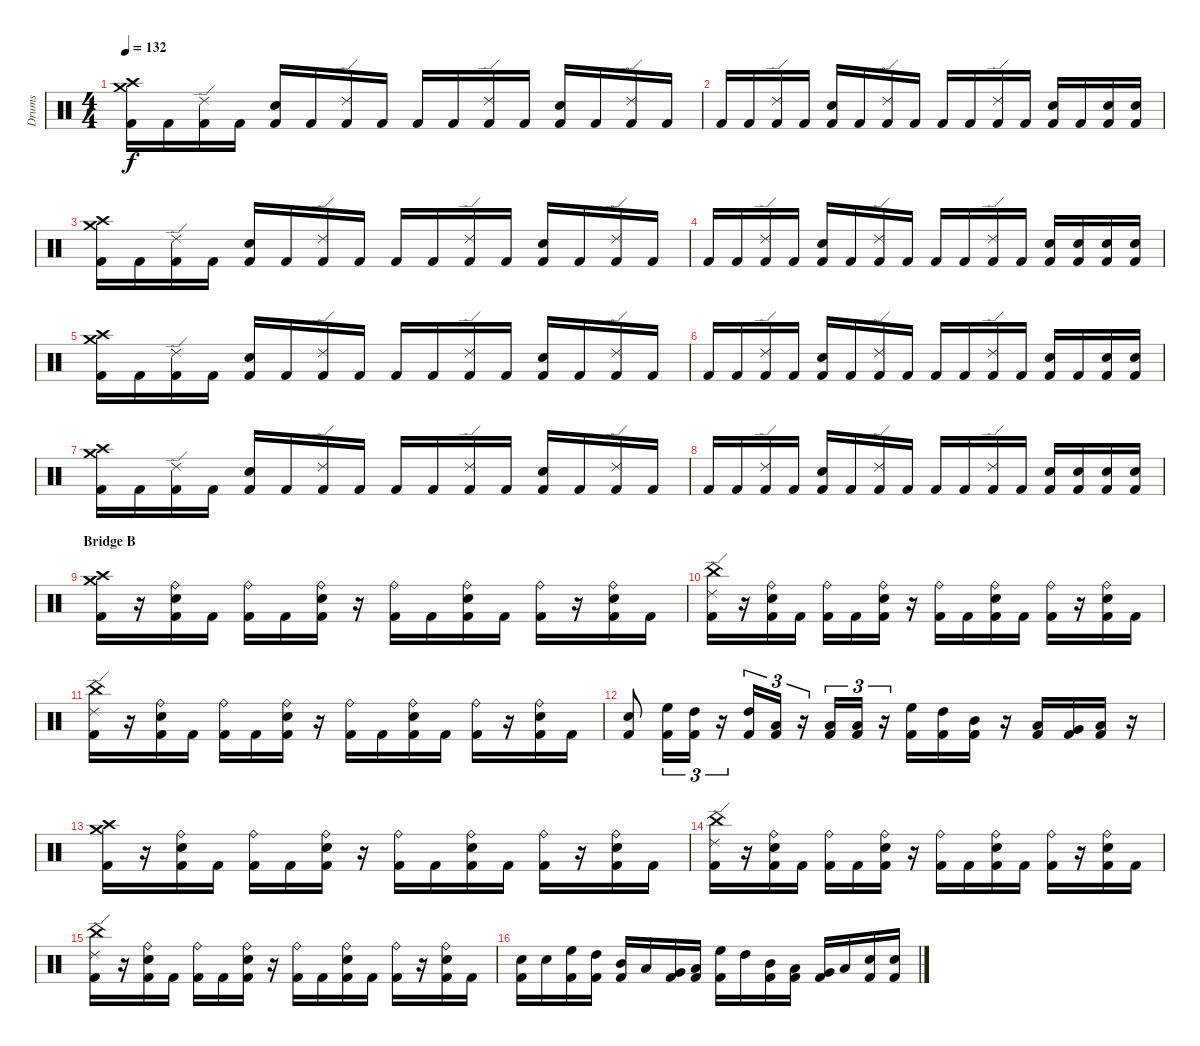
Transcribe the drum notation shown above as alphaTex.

\track ("Drums" "Drums") {instrument percussion}
\staff {score}
\articulation defaults
\ts (4 4)
\tempo 132
\clef neutral
\ks c
("Crash medium (hit)" "Crash high (hit)" "Kick (hit) 2").16{dy f} "Kick (hit) 2".16 ("Ride (edge) 2" "Kick (hit) 2").16 "Kick (hit) 2".16 ("Electric Snare (hit)" "Kick (hit) 2").16 "Kick (hit) 2".16 ("Ride (edge) 2" "Kick (hit) 2").16 "Kick (hit) 2".16 "Kick (hit) 2".16 "Kick (hit) 2".16 ("Ride (edge) 2" "Kick (hit) 2").16 "Kick (hit) 2".16 ("Electric Snare (hit)" "Kick (hit) 2").16 "Kick (hit) 2".16 ("Ride (edge) 2" "Kick (hit) 2").16 "Kick (hit) 2".16 |
"Kick (hit) 2".16 "Kick (hit) 2".16 ("Ride (edge) 2" "Kick (hit) 2").16 "Kick (hit) 2".16 ("Electric Snare (hit)" "Kick (hit) 2").16 "Kick (hit) 2".16 ("Ride (edge) 2" "Kick (hit) 2").16 "Kick (hit) 2".16 "Kick (hit) 2".16 "Kick (hit) 2".16 ("Ride (edge) 2" "Kick (hit) 2").16 "Kick (hit) 2".16 ("Electric Snare (hit)" "Kick (hit) 2").16 "Kick (hit) 2".16 ("Electric Snare (hit)" "Kick (hit) 2").16 ("Electric Snare (hit)" "Kick (hit) 2").16 |
("Crash medium (hit)" "Crash high (hit)" "Kick (hit) 2").16 "Kick (hit) 2".16 ("Ride (edge) 2" "Kick (hit) 2").16 "Kick (hit) 2".16 ("Electric Snare (hit)" "Kick (hit) 2").16 "Kick (hit) 2".16 ("Ride (edge) 2" "Kick (hit) 2").16 "Kick (hit) 2".16 "Kick (hit) 2".16 "Kick (hit) 2".16 ("Ride (edge) 2" "Kick (hit) 2").16 "Kick (hit) 2".16 ("Electric Snare (hit)" "Kick (hit) 2").16 "Kick (hit) 2".16 ("Ride (edge) 2" "Kick (hit) 2").16 "Kick (hit) 2".16 |
"Kick (hit) 2".16 "Kick (hit) 2".16 ("Ride (edge) 2" "Kick (hit) 2").16 "Kick (hit) 2".16 ("Electric Snare (hit)" "Kick (hit) 2").16 "Kick (hit) 2".16 ("Ride (edge) 2" "Kick (hit) 2").16 "Kick (hit) 2".16 "Kick (hit) 2".16 "Kick (hit) 2".16 ("Ride (edge) 2" "Kick (hit) 2").16 "Kick (hit) 2".16 ("Electric Snare (hit)" "Kick (hit) 2").16 ("Electric Snare (hit)" "Kick (hit) 2").16 ("Electric Snare (hit)" "Kick (hit) 2").16 ("Electric Snare (hit)" "Kick (hit) 2").16 |
("Crash medium (hit)" "Crash high (hit)" "Kick (hit) 2").16 "Kick (hit) 2".16 ("Ride (edge) 2" "Kick (hit) 2").16 "Kick (hit) 2".16 ("Electric Snare (hit)" "Kick (hit) 2").16 "Kick (hit) 2".16 ("Ride (edge) 2" "Kick (hit) 2").16 "Kick (hit) 2".16 "Kick (hit) 2".16 "Kick (hit) 2".16 ("Ride (edge) 2" "Kick (hit) 2").16 "Kick (hit) 2".16 ("Electric Snare (hit)" "Kick (hit) 2").16 "Kick (hit) 2".16 ("Ride (edge) 2" "Kick (hit) 2").16 "Kick (hit) 2".16 |
"Kick (hit) 2".16 "Kick (hit) 2".16 ("Ride (edge) 2" "Kick (hit) 2").16 "Kick (hit) 2".16 ("Electric Snare (hit)" "Kick (hit) 2").16 "Kick (hit) 2".16 ("Ride (edge) 2" "Kick (hit) 2").16 "Kick (hit) 2".16 "Kick (hit) 2".16 "Kick (hit) 2".16 ("Ride (edge) 2" "Kick (hit) 2").16 "Kick (hit) 2".16 ("Electric Snare (hit)" "Kick (hit) 2").16 "Kick (hit) 2".16 ("Electric Snare (hit)" "Kick (hit) 2").16 ("Electric Snare (hit)" "Kick (hit) 2").16 |
("Crash medium (hit)" "Crash high (hit)" "Kick (hit) 2").16 "Kick (hit) 2".16 ("Ride (edge) 2" "Kick (hit) 2").16 "Kick (hit) 2".16 ("Electric Snare (hit)" "Kick (hit) 2").16 "Kick (hit) 2".16 ("Ride (edge) 2" "Kick (hit) 2").16 "Kick (hit) 2".16 "Kick (hit) 2".16 "Kick (hit) 2".16 ("Ride (edge) 2" "Kick (hit) 2").16 "Kick (hit) 2".16 ("Electric Snare (hit)" "Kick (hit) 2").16 "Kick (hit) 2".16 ("Ride (edge) 2" "Kick (hit) 2").16 "Kick (hit) 2".16 |
"Kick (hit) 2".16 "Kick (hit) 2".16 ("Ride (edge) 2" "Kick (hit) 2").16 "Kick (hit) 2".16 ("Electric Snare (hit)" "Kick (hit) 2").16 "Kick (hit) 2".16 ("Ride (edge) 2" "Kick (hit) 2").16 "Kick (hit) 2".16 "Kick (hit) 2".16 "Kick (hit) 2".16 ("Ride (edge) 2" "Kick (hit) 2").16 "Kick (hit) 2".16 ("Electric Snare (hit)" "Kick (hit) 2").16 ("Electric Snare (hit)" "Kick (hit) 2").16 ("Electric Snare (hit)" "Kick (hit) 2").16 ("Electric Snare (hit)" "Kick (hit) 2").16 |
\section ("" "Bridge B")
("Crash medium (hit)" "Crash high (hit)" "Kick (hit) 2").16 r.16 ("Ride (bell)" "Electric Snare (hit)" "Kick (hit) 2").16 "Kick (hit) 2".16 ("Ride (bell)" "Kick (hit) 2").16 "Kick (hit) 2".16 ("Ride (bell)" "Electric Snare (hit)" "Kick (hit) 2").16 r.16 ("Ride (bell)" "Kick (hit) 2").16 "Kick (hit) 2".16 ("Ride (bell)" "Electric Snare (hit)" "Kick (hit) 2").16 "Kick (hit) 2".16 ("Ride (bell)" "Kick (hit) 2").16 r.16 ("Ride (bell)" "Electric Snare (hit)" "Kick (hit) 2").16 "Kick (hit) 2".16 |
("Ride (edge) 2" "China (hit)" "Kick (hit) 2").16 r.16 ("Ride (bell)" "Electric Snare (hit)" "Kick (hit) 2").16 "Kick (hit) 2".16 ("Ride (bell)" "Kick (hit) 2").16 "Kick (hit) 2".16 ("Ride (bell)" "Electric Snare (hit)" "Kick (hit) 2").16 r.16 ("Ride (bell)" "Kick (hit) 2").16 "Kick (hit) 2".16 ("Ride (bell)" "Electric Snare (hit)" "Kick (hit) 2").16 "Kick (hit) 2".16 ("Ride (bell)" "Kick (hit) 2").16 r.16 ("Ride (bell)" "Electric Snare (hit)" "Kick (hit) 2").16 "Kick (hit) 2".16 |
("Ride (edge) 2" "China (hit)" "Kick (hit) 2").16 r.16 ("Ride (bell)" "Electric Snare (hit)" "Kick (hit) 2").16 "Kick (hit) 2".16 ("Ride (bell)" "Kick (hit) 2").16 "Kick (hit) 2".16 ("Ride (bell)" "Electric Snare (hit)" "Kick (hit) 2").16 r.16 ("Ride (bell)" "Kick (hit) 2").16 "Kick (hit) 2".16 ("Ride (bell)" "Electric Snare (hit)" "Kick (hit) 2").16 "Kick (hit) 2".16 ("Ride (bell)" "Kick (hit) 2").16 r.16 ("Ride (bell)" "Electric Snare (hit)" "Kick (hit) 2").16 "Kick (hit) 2".16 |
("Electric Snare (hit)" "Kick (hit) 2").8 ("High Floor Tom (hit)" "Kick (hit) 2").16{tu (3 2)} ("High Tom (hit)" "Kick (hit) 2").16{tu (3 2)} r.16{tu (3 2)} ("High Tom (hit)" "Kick (hit) 2").16{tu (3 2)} ("Low Tom (hit)" "Kick (hit) 2").16{tu (3 2)} r.16{tu (3 2)} ("Low Tom (hit)" "Kick (hit) 2").16{tu (3 2)} ("Low Floor Tom (hit)" "Kick (hit) 2").16{tu (3 2)} r.16{tu (3 2)} ("High Floor Tom (hit)" "Kick (hit) 2").16 ("High Tom (hit)" "Kick (hit) 2").16 ("Mid Tom (hit)" "Kick (hit) 2").16 r.16 ("Low Tom (hit)" "Kick (hit) 2").16 ("Very Low Tom (hit)" "Kick (hit) 2").16 ("Low Floor Tom (hit)" "Kick (hit) 2").16 r.16 |
("Crash medium (hit)" "Crash high (hit)" "Kick (hit) 2").16 r.16 ("Ride (bell)" "Electric Snare (hit)" "Kick (hit) 2").16 "Kick (hit) 2".16 ("Ride (bell)" "Kick (hit) 2").16 "Kick (hit) 2".16 ("Ride (bell)" "Electric Snare (hit)" "Kick (hit) 2").16 r.16 ("Ride (bell)" "Kick (hit) 2").16 "Kick (hit) 2".16 ("Ride (bell)" "Electric Snare (hit)" "Kick (hit) 2").16 "Kick (hit) 2".16 ("Ride (bell)" "Kick (hit) 2").16 r.16 ("Ride (bell)" "Electric Snare (hit)" "Kick (hit) 2").16 "Kick (hit) 2".16 |
("Ride (edge) 2" "China (hit)" "Kick (hit) 2").16 r.16 ("Ride (bell)" "Electric Snare (hit)" "Kick (hit) 2").16 "Kick (hit) 2".16 ("Ride (bell)" "Kick (hit) 2").16 "Kick (hit) 2".16 ("Ride (bell)" "Electric Snare (hit)" "Kick (hit) 2").16 r.16 ("Ride (bell)" "Kick (hit) 2").16 "Kick (hit) 2".16 ("Ride (bell)" "Electric Snare (hit)" "Kick (hit) 2").16 "Kick (hit) 2".16 ("Ride (bell)" "Kick (hit) 2").16 r.16 ("Ride (bell)" "Electric Snare (hit)" "Kick (hit) 2").16 "Kick (hit) 2".16 |
("Ride (edge) 2" "China (hit)" "Kick (hit) 2").16 r.16 ("Ride (bell)" "Electric Snare (hit)" "Kick (hit) 2").16 "Kick (hit) 2".16 ("Ride (bell)" "Kick (hit) 2").16 "Kick (hit) 2".16 ("Ride (bell)" "Electric Snare (hit)" "Kick (hit) 2").16 r.16 ("Ride (bell)" "Kick (hit) 2").16 "Kick (hit) 2".16 ("Ride (bell)" "Electric Snare (hit)" "Kick (hit) 2").16 "Kick (hit) 2".16 ("Ride (bell)" "Kick (hit) 2").16 r.16 ("Ride (bell)" "Electric Snare (hit)" "Kick (hit) 2").16 "Kick (hit) 2".16 |
("Electric Snare (hit)" "Kick (hit) 2").16 "Electric Snare (hit)".16 ("High Floor Tom (hit)" "Kick (hit) 2").16 ("High Tom (hit)" "Kick (hit) 2").16 ("Mid Tom (hit)" "Kick (hit) 2").16 "Low Tom (hit)".16 ("Very Low Tom (hit)" "Kick (hit) 2").16 ("Low Floor Tom (hit)" "Kick (hit) 2").16 ("High Floor Tom (hit)" "Kick (hit) 2").16 "High Tom (hit)".16 ("Mid Tom (hit)" "Kick (hit) 2").16 ("Low Tom (hit)" "Kick (hit) 2").16 ("Very Low Tom (hit)" "Kick (hit) 2").16 "Low Floor Tom (hit)".16 ("Electric Snare (hit)" "Kick (hit) 2").16 ("Electric Snare (hit)" "Kick (hit) 2").16
